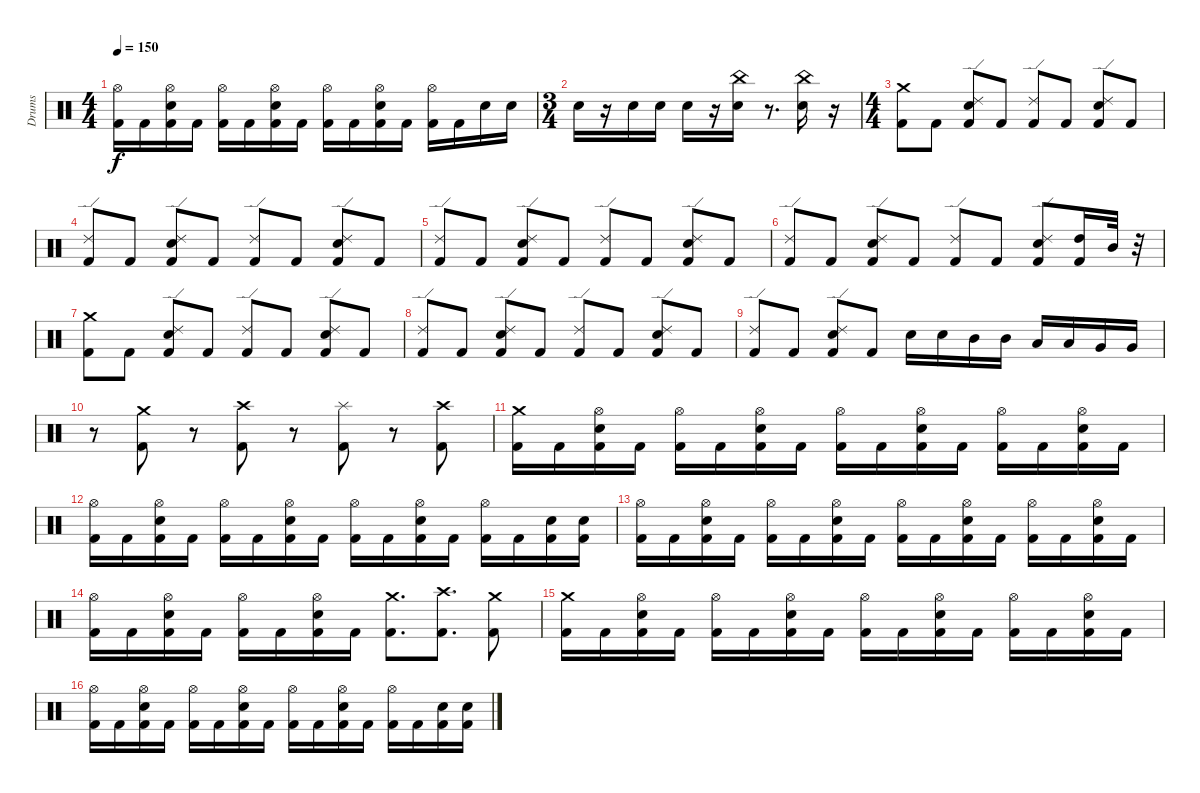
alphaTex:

\track ("Drums" "Drums") {instrument percussion}
\staff {score}
\articulation defaults
\ts (4 4)
\tempo 150
\clef neutral
\ks c
("Hi-Hat (open)" "Kick (hit) 2").16{dy f} "Kick (hit) 2".16 ("Kick (hit) 2" "Hi-Hat (open)" "Electric Snare (hit)").16 "Kick (hit) 2".16 ("Hi-Hat (open)" "Kick (hit) 2").16 "Kick (hit) 2".16 ("Hi-Hat (open)" "Electric Snare (hit)" "Kick (hit) 2").16 "Kick (hit) 2".16 ("Hi-Hat (open)" "Kick (hit) 2").16 "Kick (hit) 2".16 ("Hi-Hat (open)" "Electric Snare (hit)" "Kick (hit) 2").16 "Kick (hit) 2".16 ("Hi-Hat (open)" "Kick (hit) 2").16 "Kick (hit) 2".16 "Electric Snare (hit)".16 "Electric Snare (hit)".16 |
\ts (3 4)
"Electric Snare (hit)".16 r.16 "Electric Snare (hit)".16 "Electric Snare (hit)".16 "Electric Snare (hit)".16 r.16 ("China (hit)" "Electric Snare (hit)").16 r.8{d} ("China (hit)" "Electric Snare (hit)").16 r.16 |
\ts (4 4)
("Kick (hit) 2" "Crash medium (hit)").8 "Kick (hit) 2".8 ("Electric Snare (hit)" "Kick (hit) 2" "Ride (edge) 2").8 "Kick (hit) 2".8 ("Kick (hit) 2" "Ride (edge) 2").8 "Kick (hit) 2".8 ("Electric Snare (hit)" "Kick (hit) 2" "Ride (edge) 2").8 "Kick (hit) 2".8 |
("Ride (edge) 2" "Kick (hit) 2").8 "Kick (hit) 2".8 ("Electric Snare (hit)" "Kick (hit) 2" "Ride (edge) 2").8 "Kick (hit) 2".8 ("Kick (hit) 2" "Ride (edge) 2").8 "Kick (hit) 2".8 ("Electric Snare (hit)" "Kick (hit) 2" "Ride (edge) 2").8 "Kick (hit) 2".8 |
("Ride (edge) 2" "Kick (hit) 2").8 "Kick (hit) 2".8 ("Electric Snare (hit)" "Kick (hit) 2" "Ride (edge) 2").8 "Kick (hit) 2".8 ("Kick (hit) 2" "Ride (edge) 2").8 "Kick (hit) 2".8 ("Electric Snare (hit)" "Kick (hit) 2" "Ride (edge) 2").8 "Kick (hit) 2".8 |
("Ride (edge) 2" "Kick (hit) 2").8 "Kick (hit) 2".8 ("Electric Snare (hit)" "Kick (hit) 2" "Ride (edge) 2").8 "Kick (hit) 2".8 ("Kick (hit) 2" "Ride (edge) 2").8 "Kick (hit) 2".8 ("Electric Snare (hit)" "Kick (hit) 2" "Ride (edge) 2").8 ("High Tom (hit)" "Kick (hit) 2").16 "Mid Tom (hit)".32 r.32 |
("Kick (hit) 2" "Crash medium (hit)").8 "Kick (hit) 2".8 ("Electric Snare (hit)" "Kick (hit) 2" "Ride (edge) 2").8 "Kick (hit) 2".8 ("Kick (hit) 2" "Ride (edge) 2").8 "Kick (hit) 2".8 ("Electric Snare (hit)" "Kick (hit) 2" "Ride (edge) 2").8 "Kick (hit) 2".8 |
("Ride (edge) 2" "Kick (hit) 2").8 "Kick (hit) 2".8 ("Electric Snare (hit)" "Kick (hit) 2" "Ride (edge) 2").8 "Kick (hit) 2".8 ("Kick (hit) 2" "Ride (edge) 2").8 "Kick (hit) 2".8 ("Electric Snare (hit)" "Kick (hit) 2" "Ride (edge) 2").8 "Kick (hit) 2".8 |
("Ride (edge) 2" "Kick (hit) 2").8 "Kick (hit) 2".8 ("Electric Snare (hit)" "Kick (hit) 2" "Ride (edge) 2").8 "Kick (hit) 2".8 "Electric Snare (hit)".16 "Electric Snare (hit)".16 "Mid Tom (hit)".16 "Mid Tom (hit)".16 "Low Tom (hit)".16 "Low Tom (hit)".16 "Very Low Tom (hit)".16 "Very Low Tom (hit)".16 |
r.8 ("Crash medium (hit)" "Kick (hit) 2").8 r.8 ("Crash high (hit)" "Kick (hit) 2").8 r.8 ("Splash (hit)" "Kick (hit) 2").8 r.8 ("Crash high (hit)" "Kick (hit) 2").8 |
("Crash medium (hit)" "Kick (hit) 2").16 "Kick (hit) 2".16 ("Hi-Hat (open)" "Electric Snare (hit)" "Kick (hit) 2").16 "Kick (hit) 2".16 ("Hi-Hat (open)" "Kick (hit) 2").16 "Kick (hit) 2".16 ("Hi-Hat (open)" "Electric Snare (hit)" "Kick (hit) 2").16 "Kick (hit) 2".16 ("Hi-Hat (open)" "Kick (hit) 2").16 "Kick (hit) 2".16 ("Hi-Hat (open)" "Electric Snare (hit)" "Kick (hit) 2").16 "Kick (hit) 2".16 ("Hi-Hat (open)" "Kick (hit) 2").16 "Kick (hit) 2".16 ("Hi-Hat (open)" "Electric Snare (hit)" "Kick (hit) 2").16 "Kick (hit) 2".16 |
("Hi-Hat (open)" "Kick (hit) 2").16 "Kick (hit) 2".16 ("Hi-Hat (open)" "Electric Snare (hit)" "Kick (hit) 2").16 "Kick (hit) 2".16 ("Hi-Hat (open)" "Kick (hit) 2").16 "Kick (hit) 2".16 ("Hi-Hat (open)" "Electric Snare (hit)" "Kick (hit) 2").16 "Kick (hit) 2".16 ("Hi-Hat (open)" "Kick (hit) 2").16 "Kick (hit) 2".16 ("Hi-Hat (open)" "Electric Snare (hit)" "Kick (hit) 2").16 "Kick (hit) 2".16 ("Hi-Hat (open)" "Kick (hit) 2").16 "Kick (hit) 2".16 ("Electric Snare (hit)" "Kick (hit) 2").16 ("Electric Snare (hit)" "Kick (hit) 2").16 |
("Hi-Hat (open)" "Kick (hit) 2").16 "Kick (hit) 2".16 ("Hi-Hat (open)" "Electric Snare (hit)" "Kick (hit) 2").16 "Kick (hit) 2".16 ("Hi-Hat (open)" "Kick (hit) 2").16 "Kick (hit) 2".16 ("Hi-Hat (open)" "Electric Snare (hit)" "Kick (hit) 2").16 "Kick (hit) 2".16 ("Hi-Hat (open)" "Kick (hit) 2").16 "Kick (hit) 2".16 ("Hi-Hat (open)" "Electric Snare (hit)" "Kick (hit) 2").16 "Kick (hit) 2".16 ("Hi-Hat (open)" "Kick (hit) 2").16 "Kick (hit) 2".16 ("Hi-Hat (open)" "Electric Snare (hit)" "Kick (hit) 2").16 "Kick (hit) 2".16 |
("Hi-Hat (open)" "Kick (hit) 2").16 "Kick (hit) 2".16 ("Hi-Hat (open)" "Electric Snare (hit)" "Kick (hit) 2").16 "Kick (hit) 2".16 ("Hi-Hat (open)" "Kick (hit) 2").16 "Kick (hit) 2".16 ("Hi-Hat (open)" "Electric Snare (hit)" "Kick (hit) 2").16 "Kick (hit) 2".16 ("Crash medium (hit)" "Kick (hit) 2").8{d} ("Crash high (hit)" "Kick (hit) 2").8{d} ("Crash medium (hit)" "Kick (hit) 2").8 |
("Crash medium (hit)" "Kick (hit) 2").16 "Kick (hit) 2".16 ("Hi-Hat (open)" "Electric Snare (hit)" "Kick (hit) 2").16 "Kick (hit) 2".16 ("Hi-Hat (open)" "Kick (hit) 2").16 "Kick (hit) 2".16 ("Hi-Hat (open)" "Electric Snare (hit)" "Kick (hit) 2").16 "Kick (hit) 2".16 ("Hi-Hat (open)" "Kick (hit) 2").16 "Kick (hit) 2".16 ("Hi-Hat (open)" "Electric Snare (hit)" "Kick (hit) 2").16 "Kick (hit) 2".16 ("Hi-Hat (open)" "Kick (hit) 2").16 "Kick (hit) 2".16 ("Hi-Hat (open)" "Electric Snare (hit)" "Kick (hit) 2").16 "Kick (hit) 2".16 |
("Hi-Hat (open)" "Kick (hit) 2").16 "Kick (hit) 2".16 ("Hi-Hat (open)" "Electric Snare (hit)" "Kick (hit) 2").16 "Kick (hit) 2".16 ("Hi-Hat (open)" "Kick (hit) 2").16 "Kick (hit) 2".16 ("Hi-Hat (open)" "Electric Snare (hit)" "Kick (hit) 2").16 "Kick (hit) 2".16 ("Hi-Hat (open)" "Kick (hit) 2").16 "Kick (hit) 2".16 ("Hi-Hat (open)" "Electric Snare (hit)" "Kick (hit) 2").16 "Kick (hit) 2".16 ("Hi-Hat (open)" "Kick (hit) 2").16 "Kick (hit) 2".16 ("Electric Snare (hit)" "Kick (hit) 2").16 ("Electric Snare (hit)" "Kick (hit) 2").16
